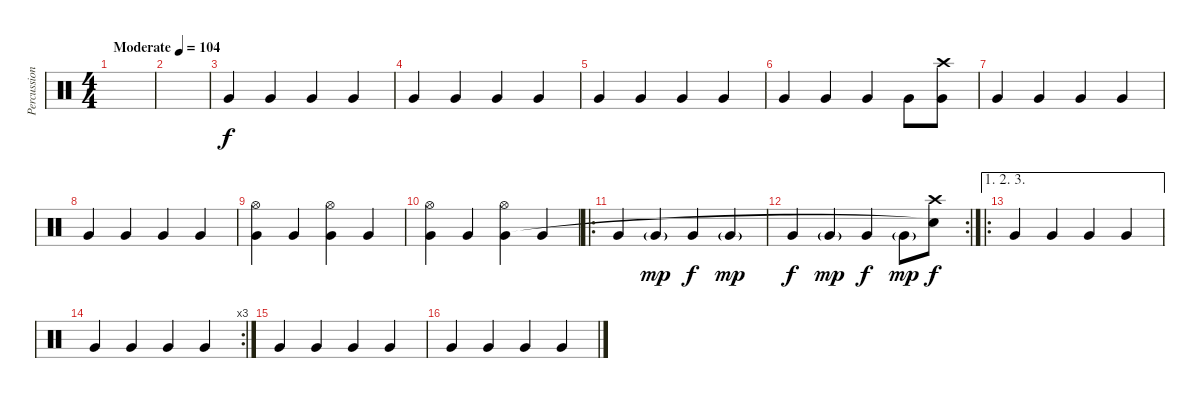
\track ("Percussion" "Percussion") {instrument percussion}
\staff {score}
\articulation defaults
\ts (4 4)
\tempo (104 "Moderate")
\clef neutral
\ks c
|
|
"Very Low Tom (hit)".4 "Very Low Tom (hit)".4 "Very Low Tom (hit)".4 "Very Low Tom (hit)".4 |
"Very Low Tom (hit)".4 "Very Low Tom (hit)".4 "Very Low Tom (hit)".4 "Very Low Tom (hit)".4 |
"Very Low Tom (hit)".4 "Very Low Tom (hit)".4 "Very Low Tom (hit)".4 "Very Low Tom (hit)".4 |
"Very Low Tom (hit)".4 "Very Low Tom (hit)".4 "Very Low Tom (hit)".4 "Very Low Tom (hit)".8 ("Crash high (hit)" "Very Low Tom (hit)").8 |
"Very Low Tom (hit)".4 "Very Low Tom (hit)".4 "Very Low Tom (hit)".4 "Very Low Tom (hit)".4 |
"Very Low Tom (hit)".4 "Very Low Tom (hit)".4 "Very Low Tom (hit)".4 "Very Low Tom (hit)".4 |
("Hi-Hat (open)" "Very Low Tom (hit)").4 "Very Low Tom (hit)".4 ("Hi-Hat (open)" "Very Low Tom (hit)").4 "Very Low Tom (hit)".4 |
("Hi-Hat (open)" "Very Low Tom (hit)").4 "Very Low Tom (hit)".4 ("Hi-Hat (open)" "Very Low Tom (hit)").4 "Very Low Tom (hit)".4 |
\ro "Very Low Tom (hit)".4 "Very Low Tom (hit)"{g}.4{dy mp} "Very Low Tom (hit)".4{dy f} "Very Low Tom (hit)"{g}.4{dy mp}
|
\rc 2 "Very Low Tom (hit)".4{dy f} "Very Low Tom (hit)"{g}.4{dy mp} "Very Low Tom (hit)".4{dy f} "Very Low Tom (hit)"{g}.8{dy mp}
("Crash high (hit)" "Snare (hit)"{t}).8{dy f} |
\ae (1 2 3)
\ro "Very Low Tom (hit)".4 "Very Low Tom (hit)".4 "Very Low Tom (hit)".4 "Very Low Tom (hit)".4
|
\rc 3 "Very Low Tom (hit)".4 "Very Low Tom (hit)".4 "Very Low Tom (hit)".4 "Very Low Tom (hit)".4
|
"Very Low Tom (hit)".4 "Very Low Tom (hit)".4 "Very Low Tom (hit)".4 "Very Low Tom (hit)".4 |
"Very Low Tom (hit)".4 "Very Low Tom (hit)".4 "Very Low Tom (hit)".4 "Very Low Tom (hit)".4
